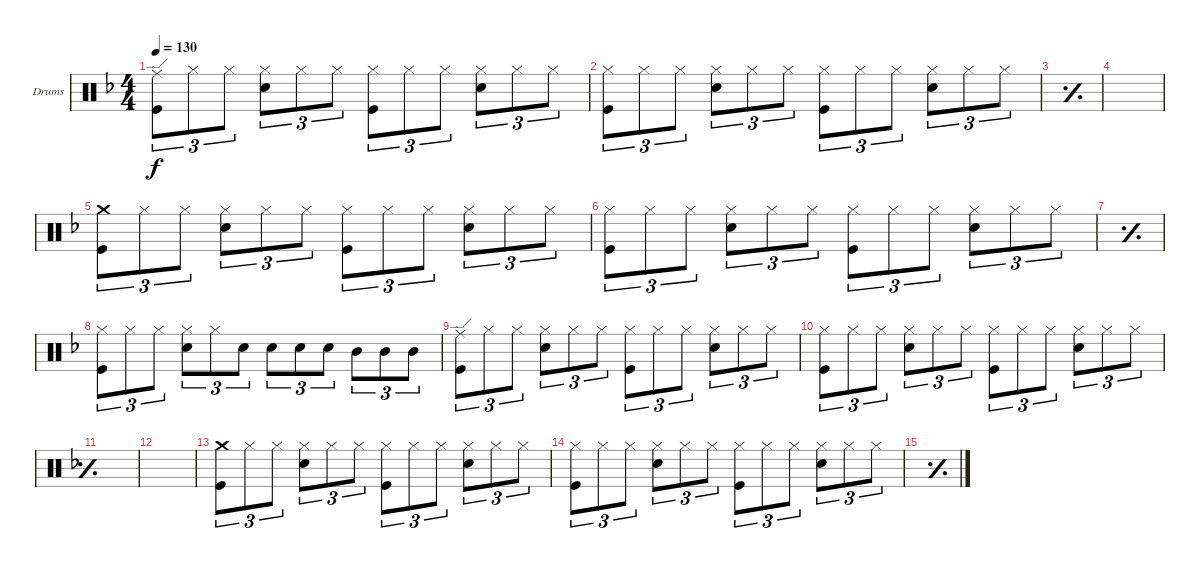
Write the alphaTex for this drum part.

\defaultSystemsLayout 4
\bracketExtendMode groupsimilarinstruments
\firstSystemTrackNameOrientation horizontal
\otherSystemsTrackNameOrientation horizontal
\track ("Matt Helders" "Drums") {instrument percussion}
\staff {score}
\articulation defaults
\ts (4 4)
\tempo 130
\clef neutral
\ks f
("Kick (hit)" "Ride (edge)").8{tu (3 2) dy f} "Hi-Hat (closed)".8{tu (3 2)} "Hi-Hat (closed)".8{tu (3 2)} ("Snare (hit) 2" "Hi-Hat (closed)").8{tu (3 2)} "Hi-Hat (closed)".8{tu (3 2)} "Hi-Hat (closed)".8{tu (3 2)} ("Kick (hit)" "Hi-Hat (closed)").8{tu (3 2)} "Hi-Hat (closed)".8{tu (3 2)} "Hi-Hat (closed)".8{tu (3 2)} ("Snare (hit) 2" "Hi-Hat (closed)").8{tu (3 2)} "Hi-Hat (closed)".8{tu (3 2)} "Hi-Hat (closed)".8{tu (3 2)} |
("Kick (hit)" "Hi-Hat (closed)").8{tu (3 2)} "Hi-Hat (closed)".8{tu (3 2)} "Hi-Hat (closed)".8{tu (3 2)} ("Snare (hit) 2" "Hi-Hat (closed)").8{tu (3 2)} "Hi-Hat (closed)".8{tu (3 2)} "Hi-Hat (closed)".8{tu (3 2)} ("Kick (hit)" "Hi-Hat (closed)").8{tu (3 2)} "Hi-Hat (closed)".8{tu (3 2)} "Hi-Hat (closed)".8{tu (3 2)} ("Snare (hit) 2" "Hi-Hat (closed)").8{tu (3 2)} "Hi-Hat (closed)".8{tu (3 2)} "Hi-Hat (closed)".8{tu (3 2)} |
\simile simple
|
|
\simile none
("Kick (hit)" "Crash medium (hit)").8{tu (3 2)} "Hi-Hat (closed)".8{tu (3 2)} "Hi-Hat (closed)".8{tu (3 2)} ("Snare (hit) 2" "Hi-Hat (closed)").8{tu (3 2)} "Hi-Hat (closed)".8{tu (3 2)} "Hi-Hat (closed)".8{tu (3 2)} ("Kick (hit)" "Hi-Hat (closed)").8{tu (3 2)} "Hi-Hat (closed)".8{tu (3 2)} "Hi-Hat (closed)".8{tu (3 2)} ("Snare (hit) 2" "Hi-Hat (closed)").8{tu (3 2)} "Hi-Hat (closed)".8{tu (3 2)} "Hi-Hat (closed)".8{tu (3 2)} |
("Kick (hit)" "Hi-Hat (closed)").8{tu (3 2)} "Hi-Hat (closed)".8{tu (3 2)} "Hi-Hat (closed)".8{tu (3 2)} ("Snare (hit) 2" "Hi-Hat (closed)").8{tu (3 2)} "Hi-Hat (closed)".8{tu (3 2)} "Hi-Hat (closed)".8{tu (3 2)} ("Kick (hit)" "Hi-Hat (closed)").8{tu (3 2)} "Hi-Hat (closed)".8{tu (3 2)} "Hi-Hat (closed)".8{tu (3 2)} ("Snare (hit) 2" "Hi-Hat (closed)").8{tu (3 2)} "Hi-Hat (closed)".8{tu (3 2)} "Hi-Hat (closed)".8{tu (3 2)} |
\simile simple
|
\simile none
("Kick (hit)" "Hi-Hat (closed)").8{tu (3 2)} "Hi-Hat (closed)".8{tu (3 2)} "Hi-Hat (closed)".8{tu (3 2)} ("Snare (hit) 2" "Hi-Hat (closed)").8{tu (3 2)} "Hi-Hat (closed)".8{tu (3 2)} "Snare (hit) 2".8{tu (3 2)} "Snare (hit) 2".8{tu (3 2)} "Snare (hit) 2".8{tu (3 2)} "Snare (hit) 2".8{tu (3 2)} "Mid Tom (hit)".8{tu (3 2)} "Mid Tom (hit)".8{tu (3 2)} "Mid Tom (hit)".8{tu (3 2)} |
("Kick (hit)" "Ride (edge)").8{tu (3 2)} "Hi-Hat (closed)".8{tu (3 2)} "Hi-Hat (closed)".8{tu (3 2)} ("Snare (hit) 2" "Hi-Hat (closed)").8{tu (3 2)} "Hi-Hat (closed)".8{tu (3 2)} "Hi-Hat (closed)".8{tu (3 2)} ("Kick (hit)" "Hi-Hat (closed)").8{tu (3 2)} "Hi-Hat (closed)".8{tu (3 2)} "Hi-Hat (closed)".8{tu (3 2)} ("Snare (hit) 2" "Hi-Hat (closed)").8{tu (3 2)} "Hi-Hat (closed)".8{tu (3 2)} "Hi-Hat (closed)".8{tu (3 2)} |
("Kick (hit)" "Hi-Hat (closed)").8{tu (3 2)} "Hi-Hat (closed)".8{tu (3 2)} "Hi-Hat (closed)".8{tu (3 2)} ("Snare (hit) 2" "Hi-Hat (closed)").8{tu (3 2)} "Hi-Hat (closed)".8{tu (3 2)} "Hi-Hat (closed)".8{tu (3 2)} ("Kick (hit)" "Hi-Hat (closed)").8{tu (3 2)} "Hi-Hat (closed)".8{tu (3 2)} "Hi-Hat (closed)".8{tu (3 2)} ("Snare (hit) 2" "Hi-Hat (closed)").8{tu (3 2)} "Hi-Hat (closed)".8{tu (3 2)} "Hi-Hat (closed)".8{tu (3 2)} |
\simile simple
|
|
\simile none
("Kick (hit)" "Crash medium (hit)").8{tu (3 2)} "Hi-Hat (closed)".8{tu (3 2)} "Hi-Hat (closed)".8{tu (3 2)} ("Snare (hit) 2" "Hi-Hat (closed)").8{tu (3 2)} "Hi-Hat (closed)".8{tu (3 2)} "Hi-Hat (closed)".8{tu (3 2)} ("Kick (hit)" "Hi-Hat (closed)").8{tu (3 2)} "Hi-Hat (closed)".8{tu (3 2)} "Hi-Hat (closed)".8{tu (3 2)} ("Snare (hit) 2" "Hi-Hat (closed)").8{tu (3 2)} "Hi-Hat (closed)".8{tu (3 2)} "Hi-Hat (closed)".8{tu (3 2)} |
("Kick (hit)" "Hi-Hat (closed)").8{tu (3 2)} "Hi-Hat (closed)".8{tu (3 2)} "Hi-Hat (closed)".8{tu (3 2)} ("Snare (hit) 2" "Hi-Hat (closed)").8{tu (3 2)} "Hi-Hat (closed)".8{tu (3 2)} "Hi-Hat (closed)".8{tu (3 2)} ("Kick (hit)" "Hi-Hat (closed)").8{tu (3 2)} "Hi-Hat (closed)".8{tu (3 2)} "Hi-Hat (closed)".8{tu (3 2)} ("Snare (hit) 2" "Hi-Hat (closed)").8{tu (3 2)} "Hi-Hat (closed)".8{tu (3 2)} "Hi-Hat (closed)".8{tu (3 2)} |
\simile simple
